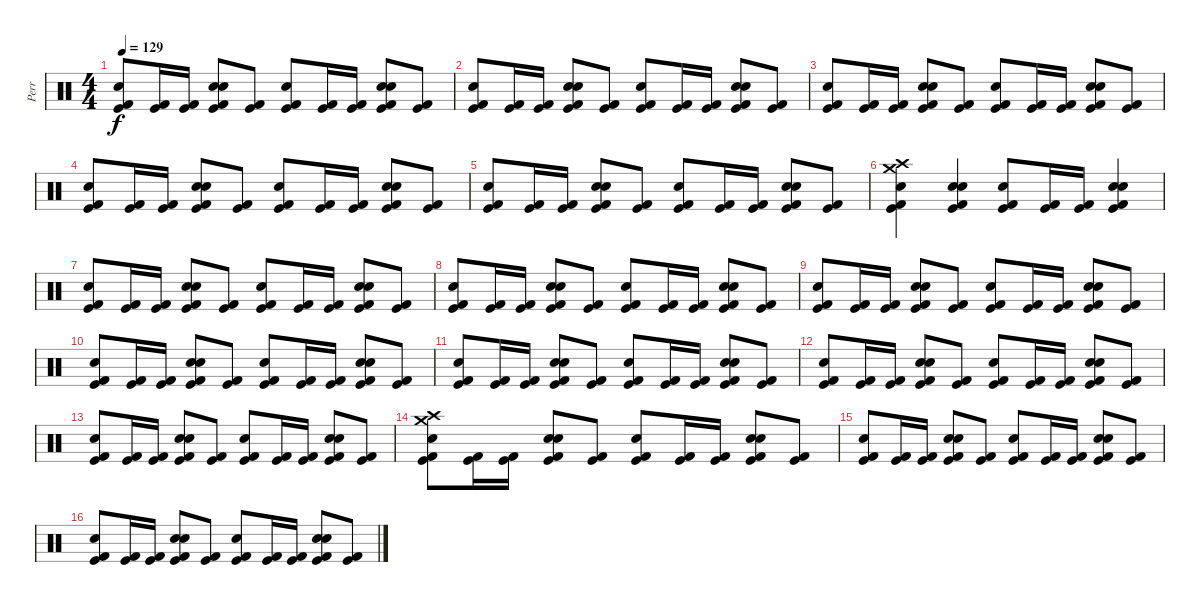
\track ("Perr" "Perr") {instrument percussion}
\staff {score}
\articulation defaults
\ts (4 4)
\tempo 129
\clef neutral
\ks c
("Kick (hit) 2" "Kick (hit)" "Electric Snare (hit)").8{dy f} ("Kick (hit)" "Kick (hit) 2").16 ("Kick (hit)" "Kick (hit) 2").16 ("Kick (hit)" "Kick (hit) 2" "Hand Clap (hit)" "Electric Snare (hit)").8 ("Kick (hit) 2" "Kick (hit)").8 ("Kick (hit) 2" "Kick (hit)" "Electric Snare (hit)").8 ("Kick (hit)" "Kick (hit) 2").16 ("Kick (hit)" "Kick (hit) 2").16 ("Kick (hit)" "Kick (hit) 2" "Hand Clap (hit)" "Electric Snare (hit)").8 ("Kick (hit) 2" "Kick (hit)").8 |
("Kick (hit) 2" "Kick (hit)" "Electric Snare (hit)").8 ("Kick (hit)" "Kick (hit) 2").16 ("Kick (hit)" "Kick (hit) 2").16 ("Kick (hit)" "Kick (hit) 2" "Hand Clap (hit)" "Electric Snare (hit)").8 ("Kick (hit) 2" "Kick (hit)").8 ("Kick (hit) 2" "Kick (hit)" "Electric Snare (hit)").8 ("Kick (hit)" "Kick (hit) 2").16 ("Kick (hit)" "Kick (hit) 2").16 ("Kick (hit)" "Kick (hit) 2" "Hand Clap (hit)" "Electric Snare (hit)").8 ("Kick (hit) 2" "Kick (hit)").8 |
("Kick (hit) 2" "Kick (hit)" "Electric Snare (hit)").8 ("Kick (hit)" "Kick (hit) 2").16 ("Kick (hit)" "Kick (hit) 2").16 ("Kick (hit)" "Kick (hit) 2" "Hand Clap (hit)" "Electric Snare (hit)").8 ("Kick (hit) 2" "Kick (hit)").8 ("Kick (hit) 2" "Kick (hit)" "Electric Snare (hit)").8 ("Kick (hit)" "Kick (hit) 2").16 ("Kick (hit)" "Kick (hit) 2").16 ("Kick (hit)" "Kick (hit) 2" "Hand Clap (hit)" "Electric Snare (hit)").8 ("Kick (hit) 2" "Kick (hit)").8 |
("Kick (hit) 2" "Kick (hit)" "Electric Snare (hit)").8 ("Kick (hit)" "Kick (hit) 2").16 ("Kick (hit)" "Kick (hit) 2").16 ("Kick (hit)" "Kick (hit) 2" "Hand Clap (hit)" "Electric Snare (hit)").8 ("Kick (hit) 2" "Kick (hit)").8 ("Kick (hit) 2" "Kick (hit)" "Electric Snare (hit)").8 ("Kick (hit)" "Kick (hit) 2").16 ("Kick (hit)" "Kick (hit) 2").16 ("Kick (hit)" "Kick (hit) 2" "Hand Clap (hit)" "Electric Snare (hit)").8 ("Kick (hit) 2" "Kick (hit)").8 |
("Kick (hit) 2" "Kick (hit)" "Electric Snare (hit)").8 ("Kick (hit)" "Kick (hit) 2").16 ("Kick (hit)" "Kick (hit) 2").16 ("Kick (hit)" "Kick (hit) 2" "Hand Clap (hit)" "Electric Snare (hit)").8 ("Kick (hit) 2" "Kick (hit)").8 ("Kick (hit) 2" "Kick (hit)" "Electric Snare (hit)").8 ("Kick (hit)" "Kick (hit) 2").16 ("Kick (hit)" "Kick (hit) 2").16 ("Kick (hit)" "Kick (hit) 2" "Hand Clap (hit)" "Electric Snare (hit)").8 ("Kick (hit) 2" "Kick (hit)").8 |
("Crash medium (hit)" "Kick (hit) 2" "Crash high (hit)" "Electric Snare (hit)" "Kick (hit)").4 ("Kick (hit)" "Kick (hit) 2" "Hand Clap (hit)" "Electric Snare (hit)").4 ("Kick (hit) 2" "Kick (hit)" "Electric Snare (hit)").8 ("Kick (hit)" "Kick (hit) 2").16 ("Kick (hit)" "Kick (hit) 2").16 ("Kick (hit)" "Kick (hit) 2" "Hand Clap (hit)" "Electric Snare (hit)").4 |
("Kick (hit) 2" "Kick (hit)" "Electric Snare (hit)").8 ("Kick (hit)" "Kick (hit) 2").16 ("Kick (hit)" "Kick (hit) 2").16 ("Kick (hit)" "Kick (hit) 2" "Hand Clap (hit)" "Electric Snare (hit)").8 ("Kick (hit) 2" "Kick (hit)").8 ("Kick (hit) 2" "Kick (hit)" "Electric Snare (hit)").8 ("Kick (hit)" "Kick (hit) 2").16 ("Kick (hit)" "Kick (hit) 2").16 ("Kick (hit)" "Kick (hit) 2" "Hand Clap (hit)" "Electric Snare (hit)").8 ("Kick (hit) 2" "Kick (hit)").8 |
("Kick (hit) 2" "Kick (hit)" "Electric Snare (hit)").8 ("Kick (hit)" "Kick (hit) 2").16 ("Kick (hit)" "Kick (hit) 2").16 ("Kick (hit)" "Kick (hit) 2" "Hand Clap (hit)" "Electric Snare (hit)").8 ("Kick (hit) 2" "Kick (hit)").8 ("Kick (hit) 2" "Kick (hit)" "Electric Snare (hit)").8 ("Kick (hit)" "Kick (hit) 2").16 ("Kick (hit)" "Kick (hit) 2").16 ("Kick (hit)" "Kick (hit) 2" "Hand Clap (hit)" "Electric Snare (hit)").8 ("Kick (hit) 2" "Kick (hit)").8 |
("Kick (hit) 2" "Kick (hit)" "Electric Snare (hit)").8 ("Kick (hit)" "Kick (hit) 2").16 ("Kick (hit)" "Kick (hit) 2").16 ("Kick (hit)" "Kick (hit) 2" "Hand Clap (hit)" "Electric Snare (hit)").8 ("Kick (hit) 2" "Kick (hit)").8 ("Kick (hit) 2" "Kick (hit)" "Electric Snare (hit)").8 ("Kick (hit)" "Kick (hit) 2").16 ("Kick (hit)" "Kick (hit) 2").16 ("Kick (hit)" "Kick (hit) 2" "Hand Clap (hit)" "Electric Snare (hit)").8 ("Kick (hit) 2" "Kick (hit)").8 |
("Kick (hit) 2" "Kick (hit)" "Electric Snare (hit)").8 ("Kick (hit)" "Kick (hit) 2").16 ("Kick (hit)" "Kick (hit) 2").16 ("Kick (hit)" "Kick (hit) 2" "Hand Clap (hit)" "Electric Snare (hit)").8 ("Kick (hit) 2" "Kick (hit)").8 ("Kick (hit) 2" "Kick (hit)" "Electric Snare (hit)").8 ("Kick (hit)" "Kick (hit) 2").16 ("Kick (hit)" "Kick (hit) 2").16 ("Kick (hit)" "Kick (hit) 2" "Hand Clap (hit)" "Electric Snare (hit)").8 ("Kick (hit) 2" "Kick (hit)").8 |
("Kick (hit) 2" "Kick (hit)" "Electric Snare (hit)").8 ("Kick (hit)" "Kick (hit) 2").16 ("Kick (hit)" "Kick (hit) 2").16 ("Kick (hit)" "Kick (hit) 2" "Hand Clap (hit)" "Electric Snare (hit)").8 ("Kick (hit) 2" "Kick (hit)").8 ("Kick (hit) 2" "Kick (hit)" "Electric Snare (hit)").8 ("Kick (hit)" "Kick (hit) 2").16 ("Kick (hit)" "Kick (hit) 2").16 ("Kick (hit)" "Kick (hit) 2" "Hand Clap (hit)" "Electric Snare (hit)").8 ("Kick (hit) 2" "Kick (hit)").8 |
("Kick (hit) 2" "Kick (hit)" "Electric Snare (hit)").8 ("Kick (hit)" "Kick (hit) 2").16 ("Kick (hit)" "Kick (hit) 2").16 ("Kick (hit)" "Kick (hit) 2" "Hand Clap (hit)" "Electric Snare (hit)").8 ("Kick (hit) 2" "Kick (hit)").8 ("Kick (hit) 2" "Kick (hit)" "Electric Snare (hit)").8 ("Kick (hit)" "Kick (hit) 2").16 ("Kick (hit)" "Kick (hit) 2").16 ("Kick (hit)" "Kick (hit) 2" "Hand Clap (hit)" "Electric Snare (hit)").8 ("Kick (hit) 2" "Kick (hit)").8 |
("Kick (hit) 2" "Kick (hit)" "Electric Snare (hit)").8 ("Kick (hit)" "Kick (hit) 2").16 ("Kick (hit)" "Kick (hit) 2").16 ("Kick (hit)" "Kick (hit) 2" "Hand Clap (hit)" "Electric Snare (hit)").8 ("Kick (hit) 2" "Kick (hit)").8 ("Kick (hit) 2" "Kick (hit)" "Electric Snare (hit)").8 ("Kick (hit)" "Kick (hit) 2").16 ("Kick (hit)" "Kick (hit) 2").16 ("Kick (hit)" "Kick (hit) 2" "Hand Clap (hit)" "Electric Snare (hit)").8 ("Kick (hit) 2" "Kick (hit)").8 |
("Kick (hit) 2" "Kick (hit)" "Electric Snare (hit)" "Crash medium (hit)" "Crash high (hit)").8 ("Kick (hit)" "Kick (hit) 2").16 ("Kick (hit)" "Kick (hit) 2").16 ("Kick (hit)" "Kick (hit) 2" "Hand Clap (hit)" "Electric Snare (hit)").8 ("Kick (hit) 2" "Kick (hit)").8 ("Kick (hit) 2" "Kick (hit)" "Electric Snare (hit)").8 ("Kick (hit)" "Kick (hit) 2").16 ("Kick (hit)" "Kick (hit) 2").16 ("Kick (hit)" "Kick (hit) 2" "Hand Clap (hit)" "Electric Snare (hit)").8 ("Kick (hit) 2" "Kick (hit)").8 |
("Kick (hit) 2" "Kick (hit)" "Electric Snare (hit)").8 ("Kick (hit)" "Kick (hit) 2").16 ("Kick (hit)" "Kick (hit) 2").16 ("Kick (hit)" "Kick (hit) 2" "Hand Clap (hit)" "Electric Snare (hit)").8 ("Kick (hit) 2" "Kick (hit)").8 ("Kick (hit) 2" "Kick (hit)" "Electric Snare (hit)").8 ("Kick (hit)" "Kick (hit) 2").16 ("Kick (hit)" "Kick (hit) 2").16 ("Kick (hit)" "Kick (hit) 2" "Hand Clap (hit)" "Electric Snare (hit)").8 ("Kick (hit) 2" "Kick (hit)").8 |
("Kick (hit) 2" "Kick (hit)" "Electric Snare (hit)").8 ("Kick (hit)" "Kick (hit) 2").16 ("Kick (hit)" "Kick (hit) 2").16 ("Kick (hit)" "Kick (hit) 2" "Hand Clap (hit)" "Electric Snare (hit)").8 ("Kick (hit) 2" "Kick (hit)").8 ("Kick (hit) 2" "Kick (hit)" "Electric Snare (hit)").8 ("Kick (hit)" "Kick (hit) 2").16 ("Kick (hit)" "Kick (hit) 2").16 ("Kick (hit)" "Kick (hit) 2" "Hand Clap (hit)" "Electric Snare (hit)").8 ("Kick (hit) 2" "Kick (hit)").8
